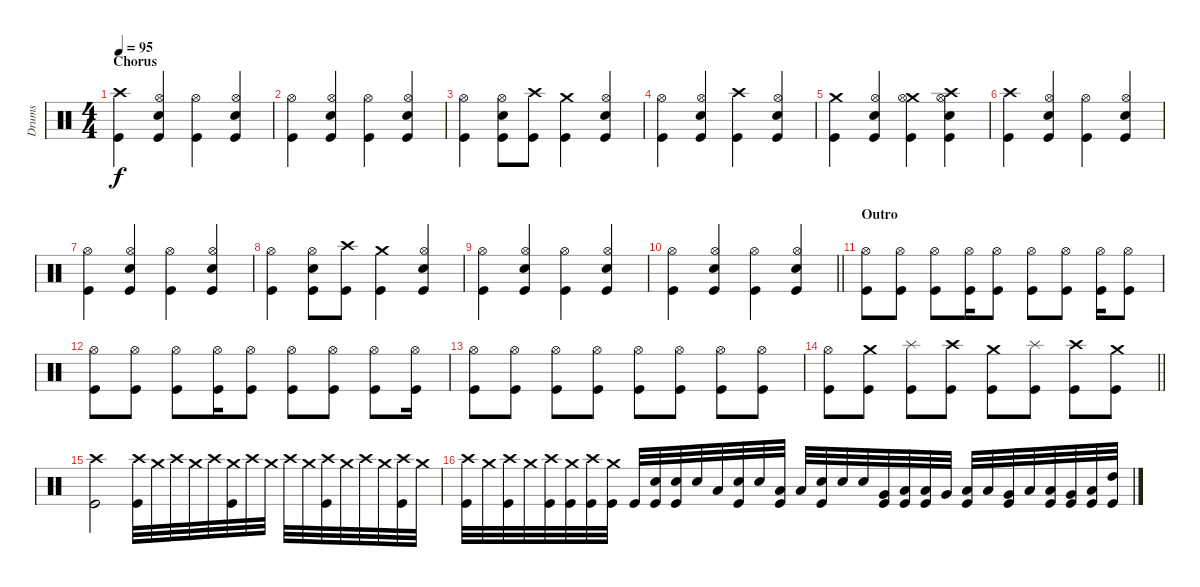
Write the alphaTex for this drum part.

\track ("Drums" "Drums") {instrument percussion}
\staff {score}
\articulation defaults
\ts (4 4)
\section ("" "Chorus")
\tempo 95
\clef neutral
\ks c
("Crash high (hit)" "Kick (hit)").4{dy f} ("Hi-Hat (open)" "Snare (hit) 2" "Kick (hit)").4 ("Hi-Hat (open)" "Kick (hit)").4 ("Hi-Hat (open)" "Snare (hit) 2" "Kick (hit)").4 |
("Hi-Hat (open)" "Kick (hit)").4 ("Hi-Hat (open)" "Snare (hit) 2" "Kick (hit)").4 ("Hi-Hat (open)" "Kick (hit)").4 ("Hi-Hat (open)" "Snare (hit) 2" "Kick (hit)").4 |
("Hi-Hat (open)" "Kick (hit)").4 ("Hi-Hat (open)" "Snare (hit) 2" "Kick (hit)").8 ("Crash high (hit)" "Kick (hit)").8 ("Crash medium (hit)" "Kick (hit)").4 ("Hi-Hat (open)" "Snare (hit) 2" "Kick (hit)").4 |
("Hi-Hat (open)" "Kick (hit)").4 ("Hi-Hat (open)" "Snare (hit) 2" "Kick (hit)").4 ("Crash high (hit)" "Kick (hit)").4 ("Hi-Hat (open)" "Snare (hit) 2" "Kick (hit)").4 |
("Crash medium (hit)" "Kick (hit)").4 ("Hi-Hat (open)" "Snare (hit) 2" "Kick (hit)").4 ("Crash medium (hit)" "Hi-Hat (open)" "Kick (hit)").4 ("Crash high (hit)" "Hi-Hat (open)" "Snare (hit) 2" "Kick (hit)").4 |
("Crash high (hit)" "Kick (hit)").4 ("Hi-Hat (open)" "Snare (hit) 2" "Kick (hit)").4 ("Hi-Hat (open)" "Kick (hit)").4 ("Hi-Hat (open)" "Snare (hit) 2" "Kick (hit)").4 |
("Hi-Hat (open)" "Kick (hit)").4 ("Hi-Hat (open)" "Snare (hit) 2" "Kick (hit)").4 ("Hi-Hat (open)" "Kick (hit)").4 ("Hi-Hat (open)" "Snare (hit) 2" "Kick (hit)").4 |
("Hi-Hat (open)" "Kick (hit)").4 ("Hi-Hat (open)" "Snare (hit) 2" "Kick (hit)").8 ("Crash high (hit)" "Kick (hit)").8 ("Crash medium (hit)" "Kick (hit)").4 ("Hi-Hat (open)" "Snare (hit) 2" "Kick (hit)").4 |
("Hi-Hat (open)" "Kick (hit)").4 ("Hi-Hat (open)" "Snare (hit) 2" "Kick (hit)").4 ("Hi-Hat (open)" "Kick (hit)").4 ("Hi-Hat (open)" "Snare (hit) 2" "Kick (hit)").4 |
\barLineRight lightlight
("Hi-Hat (open)" "Kick (hit)").4 ("Hi-Hat (open)" "Snare (hit) 2" "Kick (hit)").4 ("Hi-Hat (open)" "Kick (hit)").4 ("Hi-Hat (open)" "Snare (hit) 2" "Kick (hit)").4 |
\section ("" "Outro")
("Hi-Hat (open)" "Kick (hit)").8 ("Hi-Hat (open)" "Kick (hit)").8 ("Hi-Hat (open)" "Kick (hit)").8 ("Hi-Hat (open)" "Kick (hit)").16 ("Hi-Hat (open)" "Kick (hit)").8 ("Hi-Hat (open)" "Kick (hit)").8 ("Hi-Hat (open)" "Kick (hit)").8 ("Hi-Hat (open)" "Kick (hit)").16 ("Hi-Hat (open)" "Kick (hit)").8 |
("Hi-Hat (open)" "Kick (hit)").8 ("Hi-Hat (open)" "Kick (hit)").8 ("Hi-Hat (open)" "Kick (hit)").8 ("Hi-Hat (open)" "Kick (hit)").16 ("Hi-Hat (open)" "Kick (hit)").8 ("Hi-Hat (open)" "Kick (hit)").8 ("Hi-Hat (open)" "Kick (hit)").8 ("Hi-Hat (open)" "Kick (hit)").8 ("Hi-Hat (open)" "Kick (hit)").16 |
("Hi-Hat (open)" "Kick (hit)").8 ("Hi-Hat (open)" "Kick (hit)").8 ("Hi-Hat (open)" "Kick (hit)").8 ("Hi-Hat (open)" "Kick (hit)").8 ("Hi-Hat (open)" "Kick (hit)").8 ("Hi-Hat (open)" "Kick (hit)").8 ("Hi-Hat (open)" "Kick (hit)").8 ("Hi-Hat (open)" "Kick (hit)").8 |
\barLineRight lightlight
("Hi-Hat (open)" "Kick (hit)").8 ("Crash medium (hit)" "Kick (hit)").8 ("Splash (hit)" "Kick (hit)").8 ("Crash high (hit)" "Kick (hit)").8 ("Crash medium (hit)" "Kick (hit)").8 ("Splash (hit)" "Kick (hit)").8 ("Crash high (hit)" "Kick (hit)").8 ("Crash medium (hit)" "Kick (hit)").8 |
("Crash high (hit)" "Kick (hit)").2 ("Crash high (hit)" "Kick (hit)").32 "Crash medium (hit)".32 "Crash high (hit)".32 "Crash medium (hit)".32 "Crash high (hit)".32 ("Crash medium (hit)" "Kick (hit)").32 "Crash high (hit)".32 "Crash medium (hit)".32 "Crash high (hit)".32 "Crash medium (hit)".32 ("Crash high (hit)" "Kick (hit)").32 "Crash medium (hit)".32 "Crash high (hit)".32 "Crash medium (hit)".32 ("Crash high (hit)" "Kick (hit)").32 "Crash medium (hit)".32 |
("Crash high (hit)" "Kick (hit)").32 "Crash medium (hit)".32 ("Crash high (hit)" "Kick (hit)").32 "Crash medium (hit)".32 ("Crash high (hit)" "Kick (hit)").32 ("Crash medium (hit)" "Kick (hit)").32 ("Crash high (hit)" "Kick (hit)").32 ("Crash medium (hit)" "Kick (hit)").32 "Kick (hit)".32 ("Snare (hit) 2" "Kick (hit)").32 ("Snare (hit) 2" "Kick (hit)").32 "Snare (hit) 2".32 "Low Tom (hit)".32 ("Snare (hit) 2" "Kick (hit)").32 "Snare (hit) 2".32 ("Low Tom (hit)" "Kick (hit)").32 "Low Tom (hit)".32 ("Snare (hit) 2" "Kick (hit)").32 "Snare (hit) 2".32 "Snare (hit) 2".32 ("Very Low Tom (hit)" "Kick (hit)").32 ("Low Tom (hit)" "Kick (hit)").32 ("Low Floor Tom (hit)" "Kick (hit)").32 "Very Low Tom (hit)".32 ("Low Tom (hit)" "Kick (hit)").32 "Low Floor Tom (hit)".32 ("Very Low Tom (hit)" "Kick (hit)").32 "Low Tom (hit)".32 ("Low Floor Tom (hit)" "Kick (hit)").32 ("Very Low Tom (hit)" "Kick (hit)").32 ("Low Tom (hit)" "Kick (hit)").32 ("High Tom (hit)" "Kick (hit)").32
